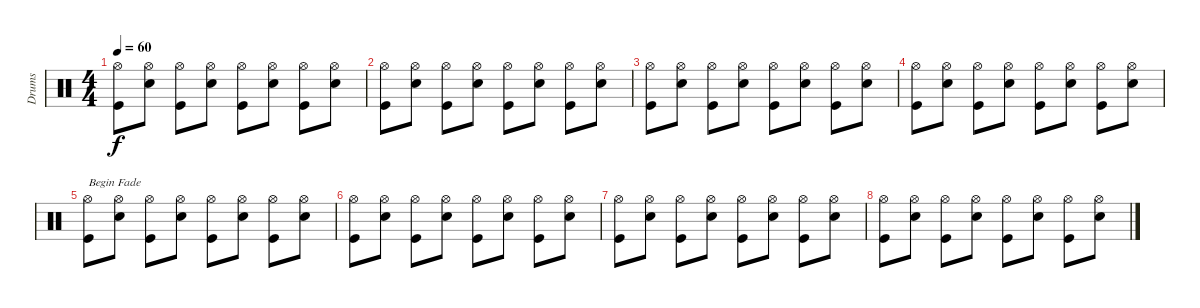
\track ("Drums" "Drums") {instrument percussion}
\staff {score}
\articulation defaults
\ts (4 4)
\tempo 60
\clef neutral
\ks c
("Hi-Hat (open)" "Kick (hit)").8{dy f} ("Hi-Hat (open)" "Snare (hit) 2").8 ("Hi-Hat (open)" "Kick (hit)").8 ("Hi-Hat (open)" "Snare (hit) 2").8 ("Hi-Hat (open)" "Kick (hit)").8 ("Hi-Hat (open)" "Snare (hit) 2").8 ("Hi-Hat (open)" "Kick (hit)").8 ("Hi-Hat (open)" "Snare (hit) 2").8 |
("Hi-Hat (open)" "Kick (hit)").8 ("Hi-Hat (open)" "Snare (hit) 2").8 ("Hi-Hat (open)" "Kick (hit)").8 ("Hi-Hat (open)" "Snare (hit) 2").8 ("Hi-Hat (open)" "Kick (hit)").8 ("Hi-Hat (open)" "Snare (hit) 2").8 ("Hi-Hat (open)" "Kick (hit)").8 ("Hi-Hat (open)" "Snare (hit) 2").8 |
("Hi-Hat (open)" "Kick (hit)").8 ("Hi-Hat (open)" "Snare (hit) 2").8 ("Hi-Hat (open)" "Kick (hit)").8 ("Hi-Hat (open)" "Snare (hit) 2").8 ("Hi-Hat (open)" "Kick (hit)").8 ("Hi-Hat (open)" "Snare (hit) 2").8 ("Hi-Hat (open)" "Kick (hit)").8 ("Hi-Hat (open)" "Snare (hit) 2").8 |
("Hi-Hat (open)" "Kick (hit)").8 ("Hi-Hat (open)" "Snare (hit) 2").8 ("Hi-Hat (open)" "Kick (hit)").8 ("Hi-Hat (open)" "Snare (hit) 2").8 ("Hi-Hat (open)" "Kick (hit)").8 ("Hi-Hat (open)" "Snare (hit) 2").8 ("Hi-Hat (open)" "Kick (hit)").8 ("Hi-Hat (open)" "Snare (hit) 2").8 |
("Hi-Hat (open)" "Kick (hit)").8{txt "Begin Fade"} ("Hi-Hat (open)" "Snare (hit) 2").8 ("Hi-Hat (open)" "Kick (hit)").8 ("Hi-Hat (open)" "Snare (hit) 2").8 ("Hi-Hat (open)" "Kick (hit)").8 ("Hi-Hat (open)" "Snare (hit) 2").8 ("Hi-Hat (open)" "Kick (hit)").8 ("Hi-Hat (open)" "Snare (hit) 2").8 |
("Hi-Hat (open)" "Kick (hit)").8 ("Hi-Hat (open)" "Snare (hit) 2").8 ("Hi-Hat (open)" "Kick (hit)").8 ("Hi-Hat (open)" "Snare (hit) 2").8 ("Hi-Hat (open)" "Kick (hit)").8 ("Hi-Hat (open)" "Snare (hit) 2").8 ("Hi-Hat (open)" "Kick (hit)").8 ("Hi-Hat (open)" "Snare (hit) 2").8 |
("Hi-Hat (open)" "Kick (hit)").8 ("Hi-Hat (open)" "Snare (hit) 2").8 ("Hi-Hat (open)" "Kick (hit)").8 ("Hi-Hat (open)" "Snare (hit) 2").8 ("Hi-Hat (open)" "Kick (hit)").8 ("Hi-Hat (open)" "Snare (hit) 2").8 ("Hi-Hat (open)" "Kick (hit)").8 ("Hi-Hat (open)" "Snare (hit) 2").8 |
("Hi-Hat (open)" "Kick (hit)").8 ("Hi-Hat (open)" "Snare (hit) 2").8 ("Hi-Hat (open)" "Kick (hit)").8 ("Hi-Hat (open)" "Snare (hit) 2").8 ("Hi-Hat (open)" "Kick (hit)").8 ("Hi-Hat (open)" "Snare (hit) 2").8 ("Hi-Hat (open)" "Kick (hit)").8 ("Hi-Hat (open)" "Snare (hit) 2").8
